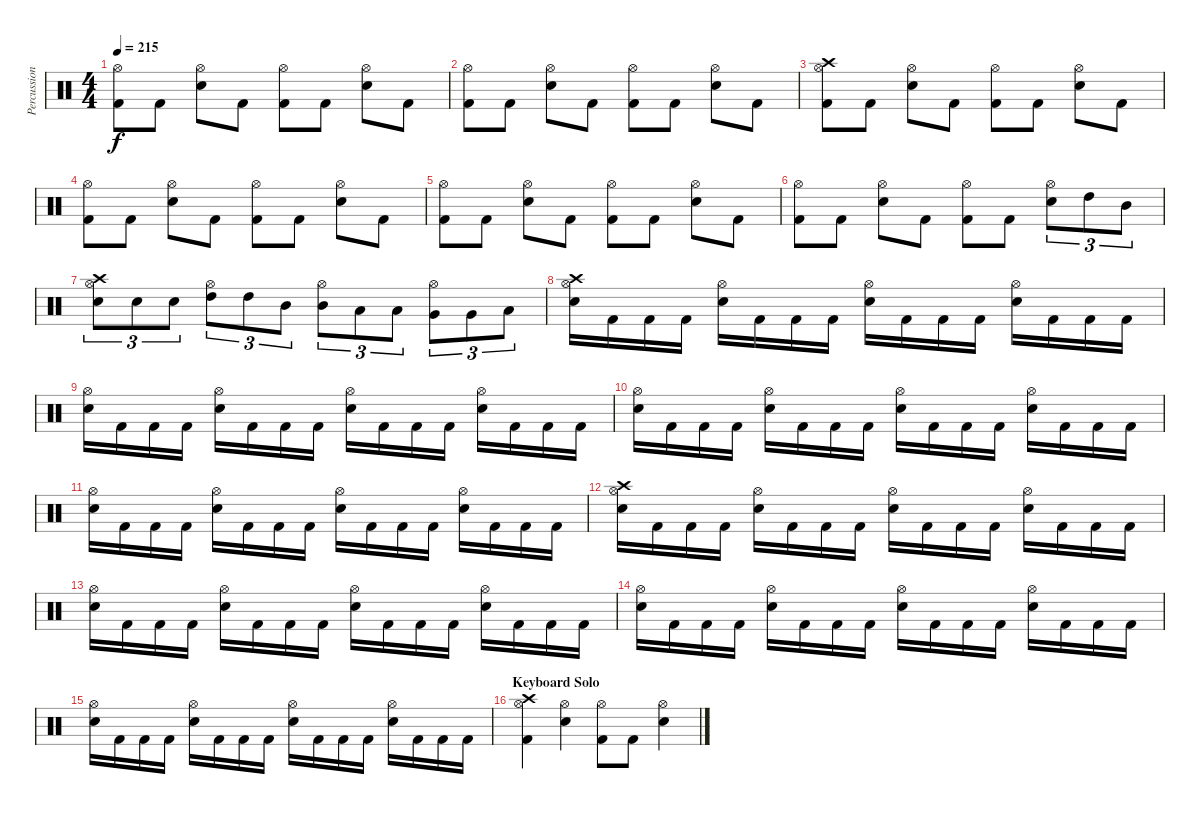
\track ("Percussions" "Percussion") {instrument percussion}
\staff {score}
\articulation defaults
\ts (4 4)
\tempo 215
\clef neutral
\ks c
("Hi-Hat (open)" "Kick (hit) 2").8{dy f} "Kick (hit) 2".8 ("Hi-Hat (open)" "Electric Snare (hit)").8 "Kick (hit) 2".8 ("Hi-Hat (open)" "Kick (hit) 2").8 "Kick (hit) 2".8 ("Hi-Hat (open)" "Electric Snare (hit)").8 "Kick (hit) 2".8 |
("Hi-Hat (open)" "Kick (hit) 2").8 "Kick (hit) 2".8 ("Hi-Hat (open)" "Electric Snare (hit)").8 "Kick (hit) 2".8 ("Hi-Hat (open)" "Kick (hit) 2").8 "Kick (hit) 2".8 ("Hi-Hat (open)" "Electric Snare (hit)").8 "Kick (hit) 2".8 |
("Crash high (hit)" "Hi-Hat (open)" "Kick (hit) 2").8 "Kick (hit) 2".8 ("Hi-Hat (open)" "Electric Snare (hit)").8 "Kick (hit) 2".8 ("Hi-Hat (open)" "Kick (hit) 2").8 "Kick (hit) 2".8 ("Hi-Hat (open)" "Electric Snare (hit)").8 "Kick (hit) 2".8 |
("Hi-Hat (open)" "Kick (hit) 2").8 "Kick (hit) 2".8 ("Hi-Hat (open)" "Electric Snare (hit)").8 "Kick (hit) 2".8 ("Hi-Hat (open)" "Kick (hit) 2").8 "Kick (hit) 2".8 ("Hi-Hat (open)" "Electric Snare (hit)").8 "Kick (hit) 2".8 |
("Hi-Hat (open)" "Kick (hit) 2").8 "Kick (hit) 2".8 ("Hi-Hat (open)" "Electric Snare (hit)").8 "Kick (hit) 2".8 ("Hi-Hat (open)" "Kick (hit) 2").8 "Kick (hit) 2".8 ("Hi-Hat (open)" "Electric Snare (hit)").8 "Kick (hit) 2".8 |
("Hi-Hat (open)" "Kick (hit) 2").8 "Kick (hit) 2".8 ("Hi-Hat (open)" "Electric Snare (hit)").8 "Kick (hit) 2".8 ("Hi-Hat (open)" "Kick (hit) 2").8 "Kick (hit) 2".8 ("Hi-Hat (open)" "Electric Snare (hit)").8{tu (3 2)} "High Tom (hit)".8{tu (3 2)} "Mid Tom (hit)".8{tu (3 2)} |
("Crash high (hit)" "Hi-Hat (open)" "Electric Snare (hit)").8{tu (3 2)} "Electric Snare (hit)".8{tu (3 2)} "Electric Snare (hit)".8{tu (3 2)} ("Hi-Hat (open)" "High Tom (hit)").8{tu (3 2)} "High Tom (hit)".8{tu (3 2)} "Mid Tom (hit)".8{tu (3 2)} ("Hi-Hat (open)" "Mid Tom (hit)").8{tu (3 2)} "Low Tom (hit)".8{tu (3 2)} "Low Tom (hit)".8{tu (3 2)} ("Hi-Hat (open)" "Very Low Tom (hit)").8{tu (3 2)} "Very Low Tom (hit)".8{tu (3 2)} "Low Floor Tom (hit)".8{tu (3 2)} |
("Crash high (hit)" "Hi-Hat (open)" "Electric Snare (hit)").16 "Kick (hit) 2".16 "Kick (hit) 2".16 "Kick (hit) 2".16 ("Hi-Hat (open)" "Electric Snare (hit)").16 "Kick (hit) 2".16 "Kick (hit) 2".16 "Kick (hit) 2".16 ("Hi-Hat (open)" "Electric Snare (hit)").16 "Kick (hit) 2".16 "Kick (hit) 2".16 "Kick (hit) 2".16 ("Hi-Hat (open)" "Electric Snare (hit)").16 "Kick (hit) 2".16 "Kick (hit) 2".16 "Kick (hit) 2".16 |
("Hi-Hat (open)" "Electric Snare (hit)").16 "Kick (hit) 2".16 "Kick (hit) 2".16 "Kick (hit) 2".16 ("Hi-Hat (open)" "Electric Snare (hit)").16 "Kick (hit) 2".16 "Kick (hit) 2".16 "Kick (hit) 2".16 ("Hi-Hat (open)" "Electric Snare (hit)").16 "Kick (hit) 2".16 "Kick (hit) 2".16 "Kick (hit) 2".16 ("Hi-Hat (open)" "Electric Snare (hit)").16 "Kick (hit) 2".16 "Kick (hit) 2".16 "Kick (hit) 2".16 |
("Hi-Hat (open)" "Electric Snare (hit)").16 "Kick (hit) 2".16 "Kick (hit) 2".16 "Kick (hit) 2".16 ("Hi-Hat (open)" "Electric Snare (hit)").16 "Kick (hit) 2".16 "Kick (hit) 2".16 "Kick (hit) 2".16 ("Hi-Hat (open)" "Electric Snare (hit)").16 "Kick (hit) 2".16 "Kick (hit) 2".16 "Kick (hit) 2".16 ("Hi-Hat (open)" "Electric Snare (hit)").16 "Kick (hit) 2".16 "Kick (hit) 2".16 "Kick (hit) 2".16 |
("Hi-Hat (open)" "Electric Snare (hit)").16 "Kick (hit) 2".16 "Kick (hit) 2".16 "Kick (hit) 2".16 ("Hi-Hat (open)" "Electric Snare (hit)").16 "Kick (hit) 2".16 "Kick (hit) 2".16 "Kick (hit) 2".16 ("Hi-Hat (open)" "Electric Snare (hit)").16 "Kick (hit) 2".16 "Kick (hit) 2".16 "Kick (hit) 2".16 ("Hi-Hat (open)" "Electric Snare (hit)").16 "Kick (hit) 2".16 "Kick (hit) 2".16 "Kick (hit) 2".16 |
("Crash high (hit)" "Hi-Hat (open)" "Electric Snare (hit)").16 "Kick (hit) 2".16 "Kick (hit) 2".16 "Kick (hit) 2".16 ("Hi-Hat (open)" "Electric Snare (hit)").16 "Kick (hit) 2".16 "Kick (hit) 2".16 "Kick (hit) 2".16 ("Hi-Hat (open)" "Electric Snare (hit)").16 "Kick (hit) 2".16 "Kick (hit) 2".16 "Kick (hit) 2".16 ("Hi-Hat (open)" "Electric Snare (hit)").16 "Kick (hit) 2".16 "Kick (hit) 2".16 "Kick (hit) 2".16 |
("Hi-Hat (open)" "Electric Snare (hit)").16 "Kick (hit) 2".16 "Kick (hit) 2".16 "Kick (hit) 2".16 ("Hi-Hat (open)" "Electric Snare (hit)").16 "Kick (hit) 2".16 "Kick (hit) 2".16 "Kick (hit) 2".16 ("Hi-Hat (open)" "Electric Snare (hit)").16 "Kick (hit) 2".16 "Kick (hit) 2".16 "Kick (hit) 2".16 ("Hi-Hat (open)" "Electric Snare (hit)").16 "Kick (hit) 2".16 "Kick (hit) 2".16 "Kick (hit) 2".16 |
("Hi-Hat (open)" "Electric Snare (hit)").16 "Kick (hit) 2".16 "Kick (hit) 2".16 "Kick (hit) 2".16 ("Hi-Hat (open)" "Electric Snare (hit)").16 "Kick (hit) 2".16 "Kick (hit) 2".16 "Kick (hit) 2".16 ("Hi-Hat (open)" "Electric Snare (hit)").16 "Kick (hit) 2".16 "Kick (hit) 2".16 "Kick (hit) 2".16 ("Hi-Hat (open)" "Electric Snare (hit)").16 "Kick (hit) 2".16 "Kick (hit) 2".16 "Kick (hit) 2".16 |
("Hi-Hat (open)" "Electric Snare (hit)").16 "Kick (hit) 2".16 "Kick (hit) 2".16 "Kick (hit) 2".16 ("Hi-Hat (open)" "Electric Snare (hit)").16 "Kick (hit) 2".16 "Kick (hit) 2".16 "Kick (hit) 2".16 ("Hi-Hat (open)" "Electric Snare (hit)").16 "Kick (hit) 2".16 "Kick (hit) 2".16 "Kick (hit) 2".16 ("Hi-Hat (open)" "Electric Snare (hit)").16 "Kick (hit) 2".16 "Kick (hit) 2".16 "Kick (hit) 2".16 |
\section ("" "Keyboard Solo")
("Crash high (hit)" "Hi-Hat (open)" "Kick (hit) 2").4 ("Hi-Hat (open)" "Electric Snare (hit)").4 ("Hi-Hat (open)" "Kick (hit) 2").8 "Kick (hit) 2".8 ("Hi-Hat (open)" "Electric Snare (hit)").4
